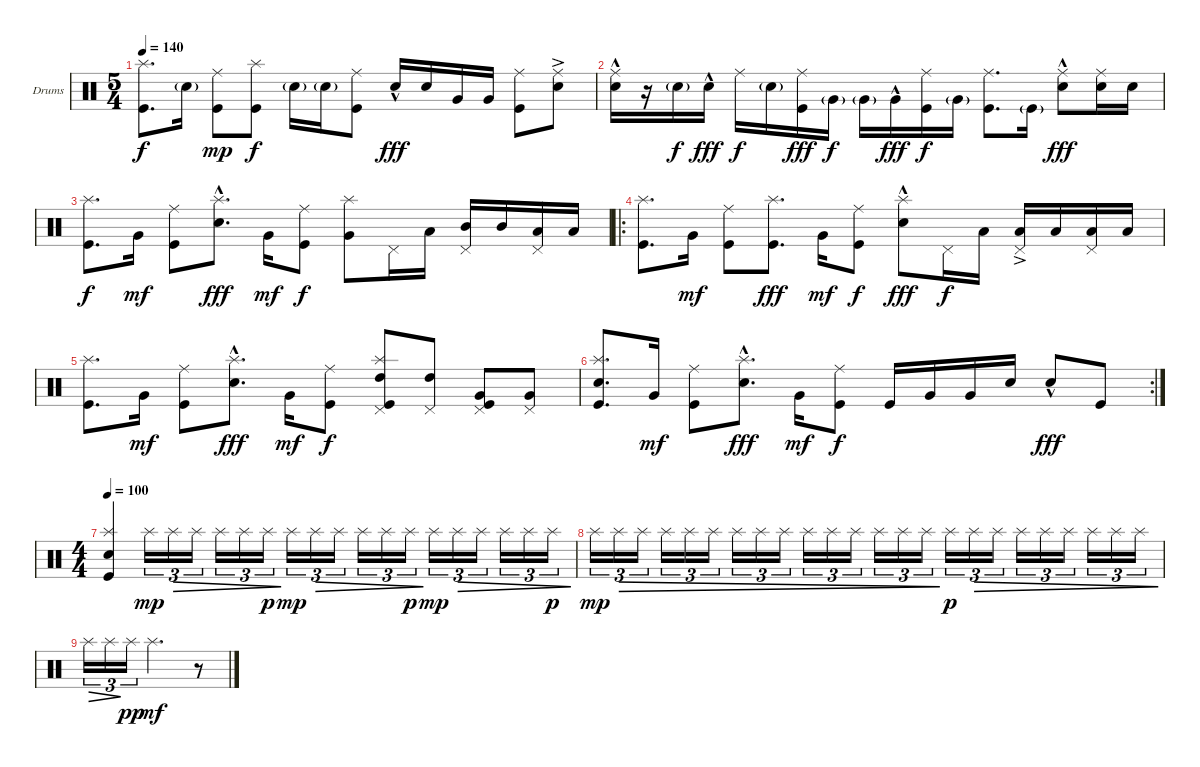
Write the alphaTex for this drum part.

\defaultSystemsLayout 4
\bracketExtendMode groupsimilarinstruments
\firstSystemTrackNameOrientation horizontal
\otherSystemsTrackNameOrientation horizontal
\track ("Drumkit" "Drums") {instrument percussion}
\staff {score}
\articulation defaults
\ts (5 4)
\tempo 140
\clef neutral
\scale
0.333333
\ks c
("Kick (hit)" "Splash (hit)").8{d dy f} "Snare (hit) 2"{g}.16 ("Kick (hit)" "Ride (middle)").8{dy mp} ("Kick (hit)" "Splash (hit)").8{dy f} "Snare (hit) 2"{g}.16 "Snare (hit) 2"{g}.16 ("Kick (hit)" "Ride (middle)").8 "Snare (hit) 2"{hac}.16{dy fff} "Snare (hit) 2".16 "Very Low Tom (hit)".16 "Very Low Tom (hit)".16 ("Kick (hit)" "Ride (middle)").8 ("Snare (hit) 2"{ac} "Ride (middle)").8 |
\scale
0.311111 ("Snare (hit) 2"{hac} "Ride (middle)").16 r.16 "Snare (hit) 2"{g}.16{dy f} "Snare (hit) 2"{hac}.16{dy fff} "Ride (middle)".16{dy f} "Snare (hit) 2"{g}.16 ("Ride (middle)" "Kick (hit)").16{dy fff} "Very Low Tom (hit)"{g}.16{dy f} "Very Low Tom (hit)"{g}.16 "Very Low Tom (hit)"{hac}.16{dy fff} ("Ride (middle)" "Kick (hit)").16{dy f} "Very Low Tom (hit)"{g}.16 ("Ride (middle)" "Kick (hit)").8{d} "Kick (hit)"{g}.16 ("Snare (hit) 2"{hac} "Ride (middle)").8{dy fff} ("Snare (hit) 2" "Ride (middle)").16 "Snare (hit) 2".16 |
\scale
0.311111 ("Kick (hit)" "Splash (hit)").8{d dy f} "Very Low Tom (hit)".16{dy mf} ("Kick (hit)" "Ride (middle)").8 ("Splash (hit)" "Snare (hit) 2"{hac}).8{d dy fff} "Very Low Tom (hit)".16{dy mf} ("Kick (hit)" "Ride (middle)").8{dy f} ("Very Low Tom (hit)" "Splash (hit)").8 "Pedal Hi-Hat (hit)".16 "Low Tom (hit)".16 ("Mid Tom (hit)" "Pedal Hi-Hat (hit)").16 "Mid Tom (hit)".16 ("Low Tom (hit)" "Pedal Hi-Hat (hit)").16 "Low Tom (hit)".16 |
\ro
\scale
0.377778 ("Kick (hit)" "Splash (hit)").8{d} "Very Low Tom (hit)".16{dy mf} ("Kick (hit)" "Ride (middle)").8 ("Splash (hit)" "Kick (hit)").8{d dy fff} "Very Low Tom (hit)".16{dy mf} ("Kick (hit)" "Ride (middle)").8{dy f} ("Splash (hit)" "Snare (hit) 2"{hac}).8{dy fff} "Pedal Hi-Hat (hit)".16{dy f} "Low Tom (hit)".16 ("Pedal Hi-Hat (hit)" "Low Tom (hit)"{ac}).16 "Low Tom (hit)".16 ("Low Tom (hit)" "Pedal Hi-Hat (hit)").16 "Low Tom (hit)".16 |
("Kick (hit)" "Splash (hit)").8{d} "Very Low Tom (hit)".16{dy mf} ("Kick (hit)" "Ride (middle)").8 ("Splash (hit)" "Snare (hit) 2"{hac}).8{d dy fff} "Very Low Tom (hit)".16{dy mf} ("Kick (hit)" "Ride (middle)").8{dy f} ("Pedal Hi-Hat (hit)" "High Tom (hit)" "Kick (hit)" "Splash (hit)").8 ("Pedal Hi-Hat (hit)" "High Tom (hit)").8 ("Pedal Hi-Hat (hit)" "Kick (hit)" "Very Low Tom (hit)").8 ("Pedal Hi-Hat (hit)" "Very Low Tom (hit)").8 |
\rc 2
("Kick (hit)" "Splash (hit)" "Snare (hit) 2").8{d} "Very Low Tom (hit)".16{dy mf} ("Kick (hit)" "Ride (middle)").8 ("Splash (hit)" "Snare (hit) 2"{hac}).8{d dy fff} "Very Low Tom (hit)".16{dy mf} ("Kick (hit)" "Ride (middle)").8{dy f} "Kick (hit)".16 "Very Low Tom (hit)".16 "Very Low Tom (hit)".16 "Snare (hit) 2".16 "Snare (hit) 2"{hac}.8{dy fff} "Kick (hit)".8 |
\ts (4 4)
\tempo 100
("Snare (hit) 2" "Splash (hit)" "Kick (hit)").4 "Splash (hit)".16{tu (3 2) dy mp} "Splash (hit)".16{tu (3 2) dec} "Splash (hit)".16{tu (3 2) dec} "Splash (hit)".16{tu (3 2) dec} "Splash (hit)".16{tu (3 2) dec} "Splash (hit)".16{tu (3 2) dec dy p} "Splash (hit)".16{tu (3 2) dy mp} "Splash (hit)".16{tu (3 2) dec} "Splash (hit)".16{tu (3 2) dec} "Splash (hit)".16{tu (3 2) dec} "Splash (hit)".16{tu (3 2) dec} "Splash (hit)".16{tu (3 2) dec dy p} "Splash (hit)".16{tu (3 2) dy mp} "Splash (hit)".16{tu (3 2) dec} "Splash (hit)".16{tu (3 2) dec} "Splash (hit)".16{tu (3 2) dec} "Splash (hit)".16{tu (3 2) dec} "Splash (hit)".16{tu (3 2) dec dy p} |
"Splash (hit)".16{tu (3 2) dy mp} "Splash (hit)".16{tu (3 2) dec} "Splash (hit)".16{tu (3 2) dec} "Splash (hit)".16{tu (3 2) dec} "Splash (hit)".16{tu (3 2) dec} "Splash (hit)".16{tu (3 2) dec} "Splash (hit)".16{tu (3 2) dec} "Splash (hit)".16{tu (3 2) dec} "Splash (hit)".16{tu (3 2) dec} "Splash (hit)".16{tu (3 2) dec} "Splash (hit)".16{tu (3 2) dec} "Splash (hit)".16{tu (3 2) dec} "Splash (hit)".16{tu (3 2) dec} "Splash (hit)".16{tu (3 2) dec} "Splash (hit)".16{tu (3 2) dec} "Splash (hit)".16{tu (3 2) dy p} "Splash (hit)".16{tu (3 2) dec} "Splash (hit)".16{tu (3 2) dec} "Splash (hit)".16{tu (3 2) dec} "Splash (hit)".16{tu (3 2) dec} "Splash (hit)".16{tu (3 2) dec} "Splash (hit)".16{tu (3 2) dec} "Splash (hit)".16{tu (3 2) dec} "Splash (hit)".16{tu (3 2) dec} |
"Splash (hit)".16{tu (3 2) dec} "Splash (hit)".16{tu (3 2) dec} "Splash (hit)".16{tu (3 2) dy pp} "Splash (hit)".2{d dy mf} r.8
